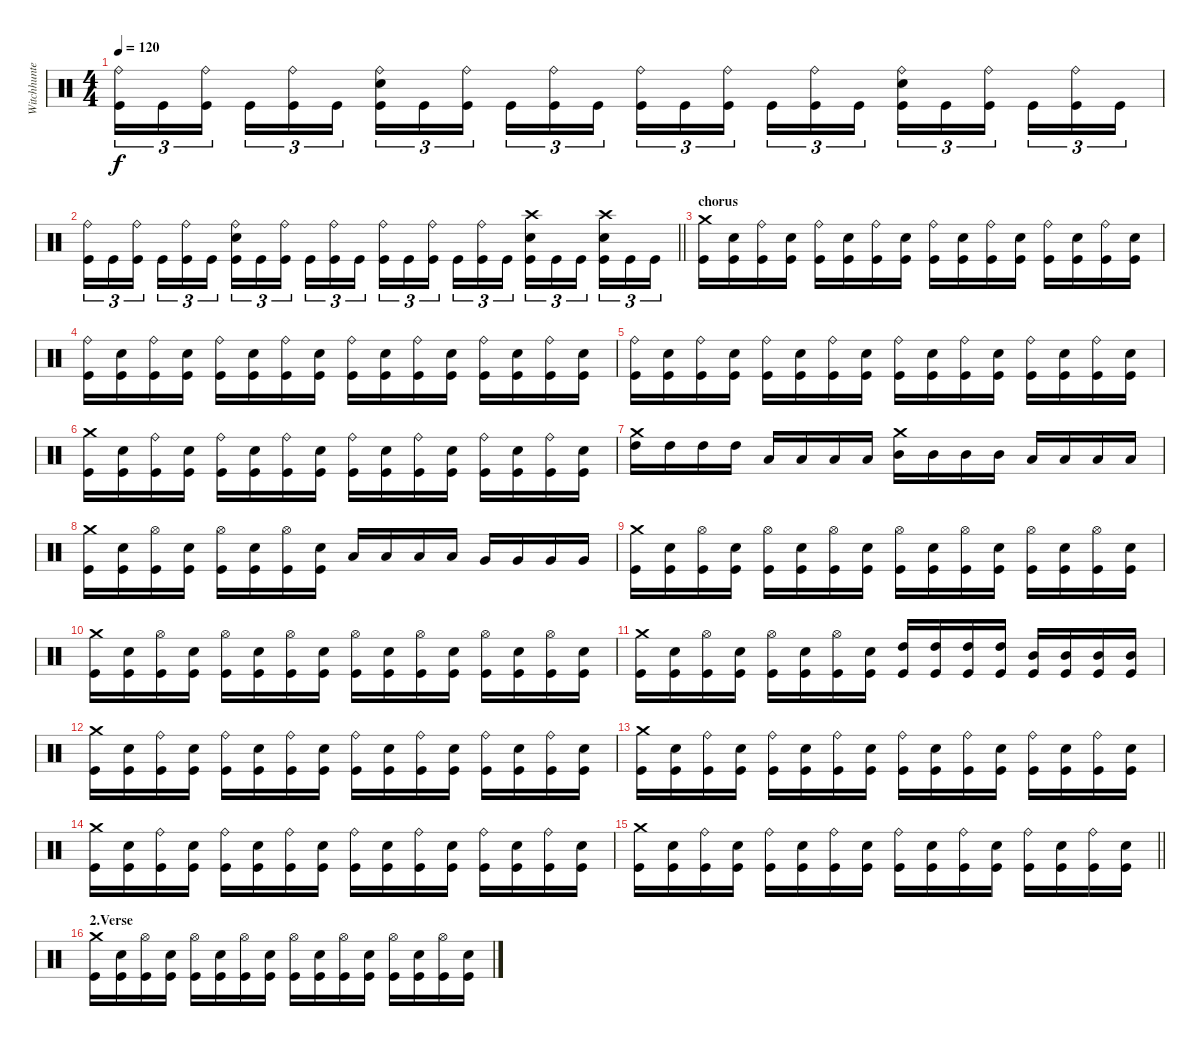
\track ("Witchhunter" "Witchhunte") {instrument percussion}
\staff {score}
\articulation defaults
\ts (4 4)
\tempo 120
\clef neutral
\ks c
("Ride (bell)" "Kick (hit)").16{tu (3 2) dy f} "Kick (hit)".16{tu (3 2)} ("Ride (bell)" "Kick (hit)").16{tu (3 2) beam splitsecondary} "Kick (hit)".16{tu (3 2)} ("Ride (bell)" "Kick (hit)").16{tu (3 2)} "Kick (hit)".16{tu (3 2)} ("Ride (bell)" "Snare (hit) 2" "Kick (hit)").16{tu (3 2)} "Kick (hit)".16{tu (3 2)} ("Ride (bell)" "Kick (hit)").16{tu (3 2) beam splitsecondary} "Kick (hit)".16{tu (3 2)} ("Ride (bell)" "Kick (hit)").16{tu (3 2)} "Kick (hit)".16{tu (3 2)} ("Ride (bell)" "Kick (hit)").16{tu (3 2)} "Kick (hit)".16{tu (3 2)} ("Ride (bell)" "Kick (hit)").16{tu (3 2) beam splitsecondary} "Kick (hit)".16{tu (3 2)} ("Ride (bell)" "Kick (hit)").16{tu (3 2)} "Kick (hit)".16{tu (3 2)} ("Ride (bell)" "Snare (hit) 2" "Kick (hit)").16{tu (3 2)} "Kick (hit)".16{tu (3 2)} ("Ride (bell)" "Kick (hit)").16{tu (3 2) beam splitsecondary} "Kick (hit)".16{tu (3 2)} ("Ride (bell)" "Kick (hit)").16{tu (3 2)} "Kick (hit)".16{tu (3 2)} |
\barLineRight lightlight
("Ride (bell)" "Kick (hit)").16{tu (3 2)} "Kick (hit)".16{tu (3 2)} ("Ride (bell)" "Kick (hit)").16{tu (3 2) beam splitsecondary} "Kick (hit)".16{tu (3 2)} ("Ride (bell)" "Kick (hit)").16{tu (3 2)} "Kick (hit)".16{tu (3 2)} ("Ride (bell)" "Snare (hit) 2" "Kick (hit)").16{tu (3 2)} "Kick (hit)".16{tu (3 2)} ("Ride (bell)" "Kick (hit)").16{tu (3 2) beam splitsecondary} "Kick (hit)".16{tu (3 2)} ("Ride (bell)" "Kick (hit)").16{tu (3 2)} "Kick (hit)".16{tu (3 2)} ("Ride (bell)" "Kick (hit)").16{tu (3 2)} "Kick (hit)".16{tu (3 2)} ("Ride (bell)" "Kick (hit)").16{tu (3 2) beam splitsecondary} "Kick (hit)".16{tu (3 2)} ("Ride (bell)" "Kick (hit)").16{tu (3 2)} "Kick (hit)".16{tu (3 2)} ("Crash high (hit)" "Snare (hit) 2" "Kick (hit)").16{tu (3 2)} "Kick (hit)".16{tu (3 2)} "Kick (hit)".16{tu (3 2) beam splitsecondary} ("Crash high (hit)" "Snare (hit) 2" "Kick (hit)").16{tu (3 2)} "Kick (hit)".16{tu (3 2)} "Kick (hit)".16{tu (3 2)} |
\section ("" "chorus")
("Crash medium (hit)" "Kick (hit)").16 ("Snare (hit) 2" "Kick (hit)").16 ("Ride (bell)" "Kick (hit)").16 ("Snare (hit) 2" "Kick (hit)").16 ("Ride (bell)" "Kick (hit)").16 ("Snare (hit) 2" "Kick (hit)").16 ("Ride (bell)" "Kick (hit)").16 ("Snare (hit) 2" "Kick (hit)").16 ("Ride (bell)" "Kick (hit)").16 ("Snare (hit) 2" "Kick (hit)").16 ("Ride (bell)" "Kick (hit)").16 ("Snare (hit) 2" "Kick (hit)").16 ("Ride (bell)" "Kick (hit)").16 ("Snare (hit) 2" "Kick (hit)").16 ("Ride (bell)" "Kick (hit)").16 ("Snare (hit) 2" "Kick (hit)").16 |
("Ride (bell)" "Kick (hit)").16 ("Snare (hit) 2" "Kick (hit)").16 ("Ride (bell)" "Kick (hit)").16 ("Snare (hit) 2" "Kick (hit)").16 ("Ride (bell)" "Kick (hit)").16 ("Snare (hit) 2" "Kick (hit)").16 ("Ride (bell)" "Kick (hit)").16 ("Snare (hit) 2" "Kick (hit)").16 ("Ride (bell)" "Kick (hit)").16 ("Snare (hit) 2" "Kick (hit)").16 ("Ride (bell)" "Kick (hit)").16 ("Snare (hit) 2" "Kick (hit)").16 ("Ride (bell)" "Kick (hit)").16 ("Snare (hit) 2" "Kick (hit)").16 ("Ride (bell)" "Kick (hit)").16 ("Snare (hit) 2" "Kick (hit)").16 |
("Ride (bell)" "Kick (hit)").16 ("Snare (hit) 2" "Kick (hit)").16 ("Ride (bell)" "Kick (hit)").16 ("Snare (hit) 2" "Kick (hit)").16 ("Ride (bell)" "Kick (hit)").16 ("Snare (hit) 2" "Kick (hit)").16 ("Ride (bell)" "Kick (hit)").16 ("Snare (hit) 2" "Kick (hit)").16 ("Ride (bell)" "Kick (hit)").16 ("Snare (hit) 2" "Kick (hit)").16 ("Ride (bell)" "Kick (hit)").16 ("Snare (hit) 2" "Kick (hit)").16 ("Ride (bell)" "Kick (hit)").16 ("Snare (hit) 2" "Kick (hit)").16 ("Ride (bell)" "Kick (hit)").16 ("Snare (hit) 2" "Kick (hit)").16 |
("Crash medium (hit)" "Kick (hit)").16 ("Snare (hit) 2" "Kick (hit)").16 ("Ride (bell)" "Kick (hit)").16 ("Snare (hit) 2" "Kick (hit)").16 ("Ride (bell)" "Kick (hit)").16 ("Snare (hit) 2" "Kick (hit)").16 ("Ride (bell)" "Kick (hit)").16 ("Snare (hit) 2" "Kick (hit)").16 ("Ride (bell)" "Kick (hit)").16 ("Snare (hit) 2" "Kick (hit)").16 ("Ride (bell)" "Kick (hit)").16 ("Snare (hit) 2" "Kick (hit)").16 ("Ride (bell)" "Kick (hit)").16 ("Snare (hit) 2" "Kick (hit)").16 ("Ride (bell)" "Kick (hit)").16 ("Snare (hit) 2" "Kick (hit)").16 |
("Crash medium (hit)" "High Tom (hit)").16 "High Tom (hit)".16 "High Tom (hit)".16 "High Tom (hit)".16 "Low Tom (hit)".16 "Low Tom (hit)".16 "Low Tom (hit)".16 "Low Tom (hit)".16 ("Crash medium (hit)" "Mid Tom (hit)").16 "Mid Tom (hit)".16 "Mid Tom (hit)".16 "Mid Tom (hit)".16 "Low Tom (hit)".16 "Low Tom (hit)".16 "Low Tom (hit)".16 "Low Tom (hit)".16 |
("Crash medium (hit)" "Kick (hit)").16 ("Snare (hit) 2" "Kick (hit)").16 ("Hi-Hat (open)" "Kick (hit)").16 ("Snare (hit) 2" "Kick (hit)").16 ("Hi-Hat (open)" "Kick (hit)").16 ("Snare (hit) 2" "Kick (hit)").16 ("Hi-Hat (open)" "Kick (hit)").16 ("Snare (hit) 2" "Kick (hit)").16 "Low Tom (hit)".16 "Low Tom (hit)".16 "Low Tom (hit)".16 "Low Tom (hit)".16 "Very Low Tom (hit)".16 "Very Low Tom (hit)".16 "Very Low Tom (hit)".16 "Very Low Tom (hit)".16 |
("Crash medium (hit)" "Kick (hit)").16 ("Snare (hit) 2" "Kick (hit)").16 ("Hi-Hat (open)" "Kick (hit)").16 ("Snare (hit) 2" "Kick (hit)").16 ("Hi-Hat (open)" "Kick (hit)").16 ("Snare (hit) 2" "Kick (hit)").16 ("Hi-Hat (open)" "Kick (hit)").16 ("Snare (hit) 2" "Kick (hit)").16 ("Hi-Hat (open)" "Kick (hit)").16 ("Snare (hit) 2" "Kick (hit)").16 ("Hi-Hat (open)" "Kick (hit)").16 ("Snare (hit) 2" "Kick (hit)").16 ("Hi-Hat (open)" "Kick (hit)").16 ("Snare (hit) 2" "Kick (hit)").16 ("Hi-Hat (open)" "Kick (hit)").16 ("Snare (hit) 2" "Kick (hit)").16 |
("Crash medium (hit)" "Kick (hit)").16 ("Snare (hit) 2" "Kick (hit)").16 ("Hi-Hat (open)" "Kick (hit)").16 ("Snare (hit) 2" "Kick (hit)").16 ("Hi-Hat (open)" "Kick (hit)").16 ("Snare (hit) 2" "Kick (hit)").16 ("Hi-Hat (open)" "Kick (hit)").16 ("Snare (hit) 2" "Kick (hit)").16 ("Hi-Hat (open)" "Kick (hit)").16 ("Snare (hit) 2" "Kick (hit)").16 ("Hi-Hat (open)" "Kick (hit)").16 ("Snare (hit) 2" "Kick (hit)").16 ("Hi-Hat (open)" "Kick (hit)").16 ("Snare (hit) 2" "Kick (hit)").16 ("Hi-Hat (open)" "Kick (hit)").16 ("Snare (hit) 2" "Kick (hit)").16 |
("Crash medium (hit)" "Kick (hit)").16 ("Snare (hit) 2" "Kick (hit)").16 ("Hi-Hat (open)" "Kick (hit)").16 ("Snare (hit) 2" "Kick (hit)").16 ("Hi-Hat (open)" "Kick (hit)").16 ("Snare (hit) 2" "Kick (hit)").16 ("Hi-Hat (open)" "Kick (hit)").16 ("Snare (hit) 2" "Kick (hit)").16 ("High Tom (hit)" "Kick (hit)").16 ("High Tom (hit)" "Kick (hit)").16 ("High Tom (hit)" "Kick (hit)").16 ("High Tom (hit)" "Kick (hit)").16 ("Mid Tom (hit)" "Kick (hit)").16 ("Mid Tom (hit)" "Kick (hit)").16 ("Mid Tom (hit)" "Kick (hit)").16 ("Mid Tom (hit)" "Kick (hit)").16 |
("Crash medium (hit)" "Kick (hit)").16 ("Snare (hit) 2" "Kick (hit)").16 ("Ride (bell)" "Kick (hit)").16 ("Snare (hit) 2" "Kick (hit)").16 ("Ride (bell)" "Kick (hit)").16 ("Snare (hit) 2" "Kick (hit)").16 ("Ride (bell)" "Kick (hit)").16 ("Snare (hit) 2" "Kick (hit)").16 ("Ride (bell)" "Kick (hit)").16 ("Snare (hit) 2" "Kick (hit)").16 ("Ride (bell)" "Kick (hit)").16 ("Snare (hit) 2" "Kick (hit)").16 ("Ride (bell)" "Kick (hit)").16 ("Snare (hit) 2" "Kick (hit)").16 ("Ride (bell)" "Kick (hit)").16 ("Snare (hit) 2" "Kick (hit)").16 |
("Crash medium (hit)" "Kick (hit)").16 ("Snare (hit) 2" "Kick (hit)").16 ("Ride (bell)" "Kick (hit)").16 ("Snare (hit) 2" "Kick (hit)").16 ("Ride (bell)" "Kick (hit)").16 ("Snare (hit) 2" "Kick (hit)").16 ("Ride (bell)" "Kick (hit)").16 ("Snare (hit) 2" "Kick (hit)").16 ("Ride (bell)" "Kick (hit)").16 ("Snare (hit) 2" "Kick (hit)").16 ("Ride (bell)" "Kick (hit)").16 ("Snare (hit) 2" "Kick (hit)").16 ("Ride (bell)" "Kick (hit)").16 ("Snare (hit) 2" "Kick (hit)").16 ("Ride (bell)" "Kick (hit)").16 ("Snare (hit) 2" "Kick (hit)").16 |
("Crash medium (hit)" "Kick (hit)").16 ("Snare (hit) 2" "Kick (hit)").16 ("Ride (bell)" "Kick (hit)").16 ("Snare (hit) 2" "Kick (hit)").16 ("Ride (bell)" "Kick (hit)").16 ("Snare (hit) 2" "Kick (hit)").16 ("Ride (bell)" "Kick (hit)").16 ("Snare (hit) 2" "Kick (hit)").16 ("Ride (bell)" "Kick (hit)").16 ("Snare (hit) 2" "Kick (hit)").16 ("Ride (bell)" "Kick (hit)").16 ("Snare (hit) 2" "Kick (hit)").16 ("Ride (bell)" "Kick (hit)").16 ("Snare (hit) 2" "Kick (hit)").16 ("Ride (bell)" "Kick (hit)").16 ("Snare (hit) 2" "Kick (hit)").16 |
\barLineRight lightlight
("Crash medium (hit)" "Kick (hit)").16 ("Snare (hit) 2" "Kick (hit)").16 ("Ride (bell)" "Kick (hit)").16 ("Snare (hit) 2" "Kick (hit)").16 ("Ride (bell)" "Kick (hit)").16 ("Snare (hit) 2" "Kick (hit)").16 ("Ride (bell)" "Kick (hit)").16 ("Snare (hit) 2" "Kick (hit)").16 ("Ride (bell)" "Kick (hit)").16 ("Snare (hit) 2" "Kick (hit)").16 ("Ride (bell)" "Kick (hit)").16 ("Snare (hit) 2" "Kick (hit)").16 ("Ride (bell)" "Kick (hit)").16 ("Snare (hit) 2" "Kick (hit)").16 ("Ride (bell)" "Kick (hit)").16 ("Snare (hit) 2" "Kick (hit)").16 |
\section ("" "2.Verse")
("Crash medium (hit)" "Kick (hit)").16 ("Snare (hit) 2" "Kick (hit)").16 ("Hi-Hat (open)" "Kick (hit)").16 ("Snare (hit) 2" "Kick (hit)").16 ("Hi-Hat (open)" "Kick (hit)").16 ("Snare (hit) 2" "Kick (hit)").16 ("Hi-Hat (open)" "Kick (hit)").16 ("Snare (hit) 2" "Kick (hit)").16 ("Hi-Hat (open)" "Kick (hit)").16 ("Snare (hit) 2" "Kick (hit)").16 ("Hi-Hat (open)" "Kick (hit)").16 ("Snare (hit) 2" "Kick (hit)").16 ("Hi-Hat (open)" "Kick (hit)").16 ("Snare (hit) 2" "Kick (hit)").16 ("Hi-Hat (open)" "Kick (hit)").16 ("Snare (hit) 2" "Kick (hit)").16
